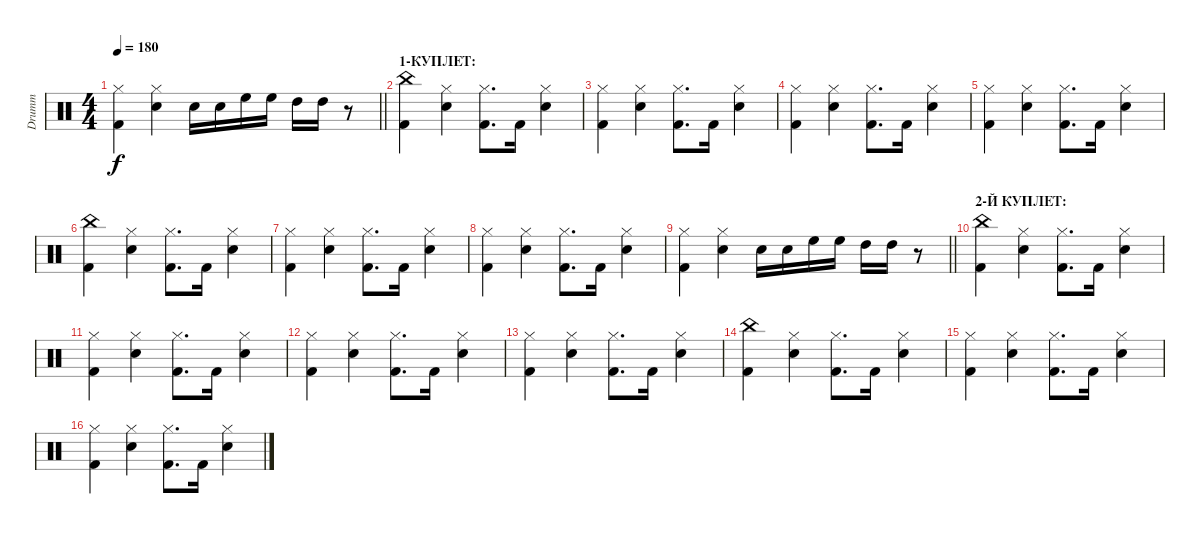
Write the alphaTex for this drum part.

\track ("Drumm" "Drumm") {instrument percussion}
\staff {score}
\articulation defaults
\ts (4 4)
\tempo 180
\clef neutral
\barLineRight lightlight
\ks c
("Hi-Hat (closed)" "Kick (hit) 2").4{dy f} ("Hi-Hat (closed)" "Electric Snare (hit)").4 "Electric Snare (hit)".16 "Electric Snare (hit)".16 "High Floor Tom (hit)".16 "High Floor Tom (hit)".16 "High Tom (hit)".16 "High Tom (hit)".16 r.8 |
\section ("" "1-КУПЛЕТ:")
("China (hit)" "Kick (hit) 2").4 ("Hi-Hat (closed)" "Electric Snare (hit)").4 ("Hi-Hat (closed)" "Kick (hit) 2").8{d} "Kick (hit) 2".16 ("Hi-Hat (closed)" "Electric Snare (hit)").4 |
("Hi-Hat (closed)" "Kick (hit) 2").4 ("Hi-Hat (closed)" "Electric Snare (hit)").4 ("Hi-Hat (closed)" "Kick (hit) 2").8{d} "Kick (hit) 2".16 ("Hi-Hat (closed)" "Electric Snare (hit)").4 |
("Hi-Hat (closed)" "Kick (hit) 2").4 ("Hi-Hat (closed)" "Electric Snare (hit)").4 ("Hi-Hat (closed)" "Kick (hit) 2").8{d} "Kick (hit) 2".16 ("Hi-Hat (closed)" "Electric Snare (hit)").4 |
("Hi-Hat (closed)" "Kick (hit) 2").4 ("Hi-Hat (closed)" "Electric Snare (hit)").4 ("Hi-Hat (closed)" "Kick (hit) 2").8{d} "Kick (hit) 2".16 ("Hi-Hat (closed)" "Electric Snare (hit)").4 |
("China (hit)" "Kick (hit) 2").4 ("Hi-Hat (closed)" "Electric Snare (hit)").4 ("Hi-Hat (closed)" "Kick (hit) 2").8{d} "Kick (hit) 2".16 ("Hi-Hat (closed)" "Electric Snare (hit)").4 |
("Hi-Hat (closed)" "Kick (hit) 2").4 ("Hi-Hat (closed)" "Electric Snare (hit)").4 ("Hi-Hat (closed)" "Kick (hit) 2").8{d} "Kick (hit) 2".16 ("Hi-Hat (closed)" "Electric Snare (hit)").4 |
("Hi-Hat (closed)" "Kick (hit) 2").4 ("Hi-Hat (closed)" "Electric Snare (hit)").4 ("Hi-Hat (closed)" "Kick (hit) 2").8{d} "Kick (hit) 2".16 ("Hi-Hat (closed)" "Electric Snare (hit)").4 |
\barLineRight lightlight
("Hi-Hat (closed)" "Kick (hit) 2").4 ("Hi-Hat (closed)" "Electric Snare (hit)").4 "Electric Snare (hit)".16 "Electric Snare (hit)".16 "High Floor Tom (hit)".16 "High Floor Tom (hit)".16 "High Tom (hit)".16 "High Tom (hit)".16 r.8 |
\section ("" "2-Й КУПЛЕТ:")
("China (hit)" "Kick (hit) 2").4 ("Hi-Hat (closed)" "Electric Snare (hit)").4 ("Hi-Hat (closed)" "Kick (hit) 2").8{d} "Kick (hit) 2".16 ("Hi-Hat (closed)" "Electric Snare (hit)").4 |
("Hi-Hat (closed)" "Kick (hit) 2").4 ("Hi-Hat (closed)" "Electric Snare (hit)").4 ("Hi-Hat (closed)" "Kick (hit) 2").8{d} "Kick (hit) 2".16 ("Hi-Hat (closed)" "Electric Snare (hit)").4 |
("Hi-Hat (closed)" "Kick (hit) 2").4 ("Hi-Hat (closed)" "Electric Snare (hit)").4 ("Hi-Hat (closed)" "Kick (hit) 2").8{d} "Kick (hit) 2".16 ("Hi-Hat (closed)" "Electric Snare (hit)").4 |
("Hi-Hat (closed)" "Kick (hit) 2").4 ("Hi-Hat (closed)" "Electric Snare (hit)").4 ("Hi-Hat (closed)" "Kick (hit) 2").8{d} "Kick (hit) 2".16 ("Hi-Hat (closed)" "Electric Snare (hit)").4 |
("China (hit)" "Kick (hit) 2").4 ("Hi-Hat (closed)" "Electric Snare (hit)").4 ("Hi-Hat (closed)" "Kick (hit) 2").8{d} "Kick (hit) 2".16 ("Hi-Hat (closed)" "Electric Snare (hit)").4 |
("Hi-Hat (closed)" "Kick (hit) 2").4 ("Hi-Hat (closed)" "Electric Snare (hit)").4 ("Hi-Hat (closed)" "Kick (hit) 2").8{d} "Kick (hit) 2".16 ("Hi-Hat (closed)" "Electric Snare (hit)").4 |
("Hi-Hat (closed)" "Kick (hit) 2").4 ("Hi-Hat (closed)" "Electric Snare (hit)").4 ("Hi-Hat (closed)" "Kick (hit) 2").8{d} "Kick (hit) 2".16 ("Hi-Hat (closed)" "Electric Snare (hit)").4
